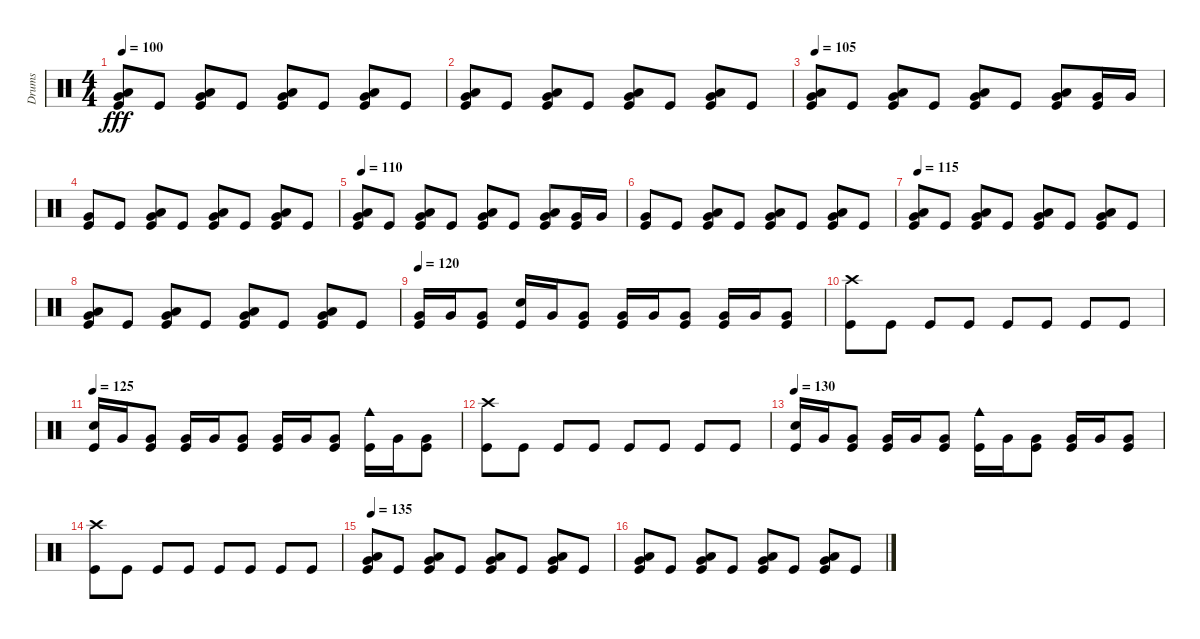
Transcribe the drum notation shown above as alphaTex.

\track ("Drums" "Drums") {instrument percussion}
\staff {score}
\articulation defaults
\ts (4 4)
\tempo 100
\clef neutral
\ks c
("Very Low Tom (hit)" "Low Floor Tom (hit)" "Kick (hit)").8{dy fff} "Kick (hit)".8 ("Very Low Tom (hit)" "Low Floor Tom (hit)" "Kick (hit)").8 "Kick (hit)".8 ("Very Low Tom (hit)" "Low Floor Tom (hit)" "Kick (hit)").8 "Kick (hit)".8 ("Very Low Tom (hit)" "Low Floor Tom (hit)" "Kick (hit)").8 "Kick (hit)".8 |
("Very Low Tom (hit)" "Low Floor Tom (hit)" "Kick (hit)").8 "Kick (hit)".8 ("Very Low Tom (hit)" "Low Floor Tom (hit)" "Kick (hit)").8 "Kick (hit)".8 ("Very Low Tom (hit)" "Low Floor Tom (hit)" "Kick (hit)").8 "Kick (hit)".8 ("Very Low Tom (hit)" "Low Floor Tom (hit)" "Kick (hit)").8 "Kick (hit)".8 |
\tempo 105
("Very Low Tom (hit)" "Low Floor Tom (hit)" "Kick (hit)").8 "Kick (hit)".8 ("Very Low Tom (hit)" "Low Floor Tom (hit)" "Kick (hit)").8 "Kick (hit)".8 ("Very Low Tom (hit)" "Low Floor Tom (hit)" "Kick (hit)").8 "Kick (hit)".8 ("Very Low Tom (hit)" "Low Floor Tom (hit)" "Kick (hit)").8 ("Very Low Tom (hit)" "Kick (hit)").16 "Very Low Tom (hit)".16 |
("Very Low Tom (hit)" "Kick (hit)").8 "Kick (hit)".8 ("Very Low Tom (hit)" "Low Floor Tom (hit)" "Kick (hit)").8 "Kick (hit)".8 ("Very Low Tom (hit)" "Low Floor Tom (hit)" "Kick (hit)").8 "Kick (hit)".8 ("Very Low Tom (hit)" "Low Floor Tom (hit)" "Kick (hit)").8 "Kick (hit)".8 |
\tempo 110
("Very Low Tom (hit)" "Low Floor Tom (hit)" "Kick (hit)").8 "Kick (hit)".8 ("Very Low Tom (hit)" "Low Floor Tom (hit)" "Kick (hit)").8 "Kick (hit)".8 ("Very Low Tom (hit)" "Low Floor Tom (hit)" "Kick (hit)").8 "Kick (hit)".8 ("Very Low Tom (hit)" "Low Floor Tom (hit)" "Kick (hit)").8 ("Very Low Tom (hit)" "Kick (hit)").16 "Very Low Tom (hit)".16 |
("Very Low Tom (hit)" "Kick (hit)").8 "Kick (hit)".8 ("Very Low Tom (hit)" "Low Floor Tom (hit)" "Kick (hit)").8 "Kick (hit)".8 ("Very Low Tom (hit)" "Low Floor Tom (hit)" "Kick (hit)").8 "Kick (hit)".8 ("Very Low Tom (hit)" "Low Floor Tom (hit)" "Kick (hit)").8 "Kick (hit)".8 |
\tempo 115
("Very Low Tom (hit)" "Low Floor Tom (hit)" "Kick (hit)").8 "Kick (hit)".8 ("Very Low Tom (hit)" "Low Floor Tom (hit)" "Kick (hit)").8 "Kick (hit)".8 ("Very Low Tom (hit)" "Low Floor Tom (hit)" "Kick (hit)").8 "Kick (hit)".8 ("Very Low Tom (hit)" "Low Floor Tom (hit)" "Kick (hit)").8 "Kick (hit)".8 |
("Very Low Tom (hit)" "Low Floor Tom (hit)" "Kick (hit)").8 "Kick (hit)".8 ("Very Low Tom (hit)" "Low Floor Tom (hit)" "Kick (hit)").8 "Kick (hit)".8 ("Very Low Tom (hit)" "Low Floor Tom (hit)" "Kick (hit)").8 "Kick (hit)".8 ("Very Low Tom (hit)" "Low Floor Tom (hit)" "Kick (hit)").8 "Kick (hit)".8 |
\tempo 120
("Very Low Tom (hit)" "Kick (hit)").16 "Very Low Tom (hit)".16 ("Very Low Tom (hit)" "Kick (hit)").8 ("Snare (hit) 2" "Kick (hit)").16 "Very Low Tom (hit)".16 ("Very Low Tom (hit)" "Kick (hit)").8 ("Very Low Tom (hit)" "Kick (hit)").16 "Very Low Tom (hit)".16 ("Very Low Tom (hit)" "Kick (hit)").8 ("Very Low Tom (hit)" "Kick (hit)").16 "Very Low Tom (hit)".16 ("Very Low Tom (hit)" "Kick (hit)").8 |
("Crash high (hit)" "Kick (hit)").8 "Kick (hit)".8 "Kick (hit)".8 "Kick (hit)".8 "Kick (hit)".8 "Kick (hit)".8 "Kick (hit)".8 "Kick (hit)".8 |
\tempo 125
("Snare (hit) 2" "Kick (hit)").16 "Very Low Tom (hit)".16 ("Very Low Tom (hit)" "Kick (hit)").8 ("Very Low Tom (hit)" "Kick (hit)").16 "Very Low Tom (hit)".16 ("Very Low Tom (hit)" "Kick (hit)").8 ("Very Low Tom (hit)" "Kick (hit)").16 "Very Low Tom (hit)".16 ("Very Low Tom (hit)" "Kick (hit)").8 ("Cowbell medium (hit)" "Kick (hit)").16 "Very Low Tom (hit)".16 ("Very Low Tom (hit)" "Kick (hit)").8 |
("Crash high (hit)" "Kick (hit)").8 "Kick (hit)".8 "Kick (hit)".8 "Kick (hit)".8 "Kick (hit)".8 "Kick (hit)".8 "Kick (hit)".8 "Kick (hit)".8 |
\tempo 130
("Snare (hit) 2" "Kick (hit)").16 "Very Low Tom (hit)".16 ("Very Low Tom (hit)" "Kick (hit)").8 ("Very Low Tom (hit)" "Kick (hit)").16 "Very Low Tom (hit)".16 ("Very Low Tom (hit)" "Kick (hit)").8 ("Cowbell medium (hit)" "Kick (hit)").16 "Very Low Tom (hit)".16 ("Very Low Tom (hit)" "Kick (hit)").8 ("Very Low Tom (hit)" "Kick (hit)").16 "Very Low Tom (hit)".16 ("Very Low Tom (hit)" "Kick (hit)").8 |
("Crash high (hit)" "Kick (hit)").8 "Kick (hit)".8 "Kick (hit)".8 "Kick (hit)".8 "Kick (hit)".8 "Kick (hit)".8 "Kick (hit)".8 "Kick (hit)".8 |
\tempo 135
("Very Low Tom (hit)" "Low Floor Tom (hit)" "Kick (hit)").8 "Kick (hit)".8 ("Very Low Tom (hit)" "Low Floor Tom (hit)" "Kick (hit)").8 "Kick (hit)".8 ("Very Low Tom (hit)" "Low Floor Tom (hit)" "Kick (hit)").8 "Kick (hit)".8 ("Very Low Tom (hit)" "Low Floor Tom (hit)" "Kick (hit)").8 "Kick (hit)".8 |
("Very Low Tom (hit)" "Low Floor Tom (hit)" "Kick (hit)").8 "Kick (hit)".8 ("Very Low Tom (hit)" "Low Floor Tom (hit)" "Kick (hit)").8 "Kick (hit)".8 ("Very Low Tom (hit)" "Low Floor Tom (hit)" "Kick (hit)").8 "Kick (hit)".8 ("Very Low Tom (hit)" "Low Floor Tom (hit)" "Kick (hit)").8 "Kick (hit)".8
